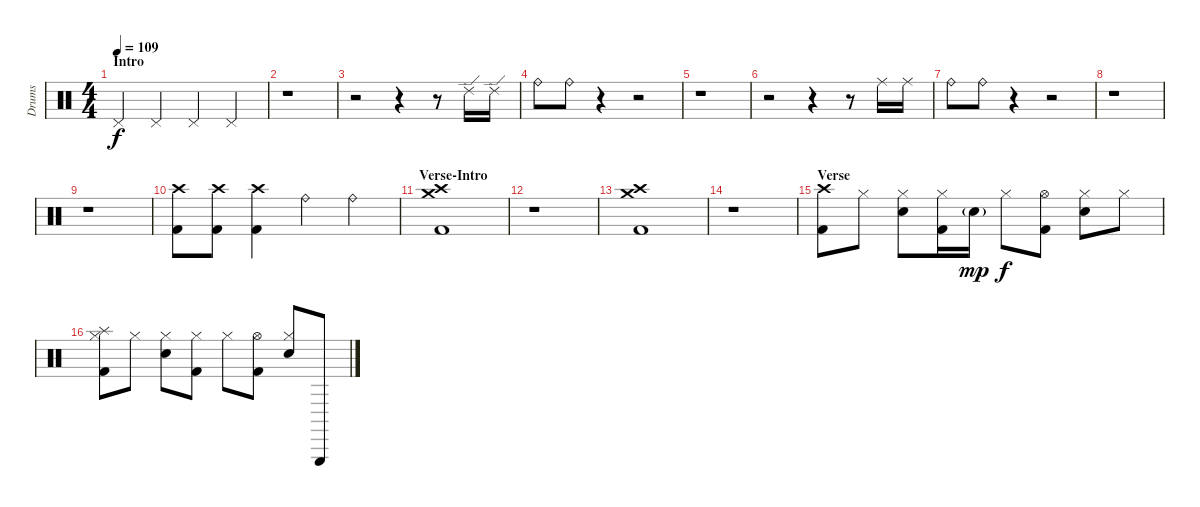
\track ("Drums" "Drums") {instrument percussion}
\staff {score}
\articulation defaults
\ts (4 4)
\section ("" "Intro")
\tempo 109
\clef neutral
\ks c "Pedal Hi-Hat (hit)".4{dy f volume 4} "Pedal Hi-Hat (hit)".4 "Pedal Hi-Hat (hit)".4 "Pedal Hi-Hat (hit)".4
|
r.1 |
r.2{volume 13} r.4 r.8 "Ride (edge) 2".16 "Ride (edge) 2".16 |
"Ride (bell)".8 "Ride (bell)".8 r.4 r.2 |
r.1 |
r.2 r.4 r.8 "Ride (middle)".16 "Ride (middle)".16 |
"Ride (bell)".8 "Ride (bell)".8 r.4 r.2 |
r.1 |
r.1 |
("Crash high (hit)" "Kick (hit) 2").8 ("Crash high (hit)" "Kick (hit) 2").8 ("Crash high (hit)" "Kick (hit) 2").4 "Ride (bell)".4 "Ride (bell)".4 |
\section ("" "Verse-Intro")
("Crash high (hit)" "Crash medium (hit)" "Kick (hit) 2").1 |
r.1 |
("Crash high (hit)" "Crash medium (hit)" "Kick (hit) 2").1 |
r.1 |
\section ("" "Verse")
("Crash high (hit)" "Kick (hit) 2").8 "Hi-Hat (closed)".8 ("Hi-Hat (closed)" "Snare (hit) 2").8 ("Hi-Hat (closed)" "Kick (hit) 2").16 "Snare (hit) 2"{g}.16{dy mp} "Hi-Hat (closed)".8{dy f} ("Hi-Hat (open)" "Kick (hit) 2").8 ("Hi-Hat (closed)" "Snare (hit) 2").8 "Hi-Hat (closed)".8 |
("Hi-Hat (closed)" "Splash (hit)" "Kick (hit) 2").8 "Hi-Hat (closed)".8 ("Hi-Hat (closed)" "Snare (hit) 2").8 ("Hi-Hat (closed)" "Kick (hit) 2").8 "Hi-Hat (closed)".8 ("Hi-Hat (open)" "Kick (hit) 2").8 ("Hi-Hat (closed)" "Snare (hit) 2").8 "Triangle (hit)".8
